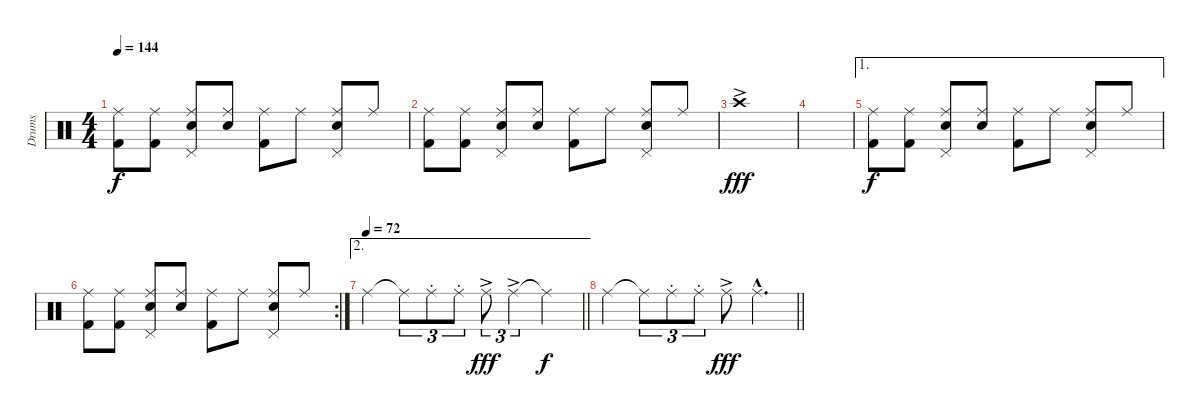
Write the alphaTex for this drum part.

\track ("Drums" "Drums") {instrument percussion}
\staff {score}
\articulation defaults
\ts (4 4)
\tempo 144
\clef neutral
\ks c
("Ride (middle)" "Kick (hit) 2").8{dy f} ("Ride (middle)" "Kick (hit) 2").8 ("Snare (hit) 2" "Pedal Hi-Hat (hit)" "Ride (middle)").8 ("Snare (hit) 2" "Ride (middle)").8 ("Ride (middle)" "Kick (hit) 2").8 "Ride (middle)".8 ("Snare (hit) 2" "Pedal Hi-Hat (hit)" "Ride (middle)").8 "Ride (middle)".8 |
("Ride (middle)" "Kick (hit) 2").8 ("Ride (middle)" "Kick (hit) 2").8 ("Snare (hit) 2" "Pedal Hi-Hat (hit)" "Ride (middle)").8 ("Snare (hit) 2" "Ride (middle)").8 ("Ride (middle)" "Kick (hit) 2").8 "Ride (middle)".8 ("Snare (hit) 2" "Pedal Hi-Hat (hit)" "Ride (middle)").8 "Ride (middle)".8 |
"Crash high (hit)"{ac}.1{dy fff} |
|
\ae 1
("Ride (middle)" "Kick (hit) 2").8{dy f} ("Ride (middle)" "Kick (hit) 2").8 ("Snare (hit) 2" "Pedal Hi-Hat (hit)" "Ride (middle)").8 ("Snare (hit) 2" "Ride (middle)").8 ("Ride (middle)" "Kick (hit) 2").8 "Ride (middle)".8 ("Snare (hit) 2" "Pedal Hi-Hat (hit)" "Ride (middle)").8 "Ride (middle)".8 |
\rc 2
("Ride (middle)" "Kick (hit) 2").8 ("Ride (middle)" "Kick (hit) 2").8 ("Snare (hit) 2" "Pedal Hi-Hat (hit)" "Ride (middle)").8 ("Snare (hit) 2" "Ride (middle)").8 ("Ride (middle)" "Kick (hit) 2").8 "Ride (middle)".8 ("Snare (hit) 2" "Pedal Hi-Hat (hit)" "Ride (middle)").8 "Ride (middle)".8 |
\ae 2
\tempo 72
\barLineRight lightlight "Ride (middle)"{tr (51 64)}.4 "Ride (middle)"{t}.8{tu (3 2)} "Ride (middle)"{st}.8{tu (3 2)} "Ride (middle)"{st}.8{tu (3 2)} "Ride (middle)"{ac}.8{tu (3 2) dy fff} "Ride (middle)"{tr (51 64) ac}.4{tu (3 2)} "Ride (middle)"{t}.4{dy f}
|
\barLineRight lightlight "Ride (middle)"{tr (51 64)}.4 "Ride (middle)"{t}.8{tu (3 2)} "Ride (middle)"{st}.8{tu (3 2)} "Ride (middle)"{st}.8{tu (3 2)} "Ride (middle)"{ac}.8{dy fff} "Ride (middle)"{tr (51 64) hac}.4{d}
